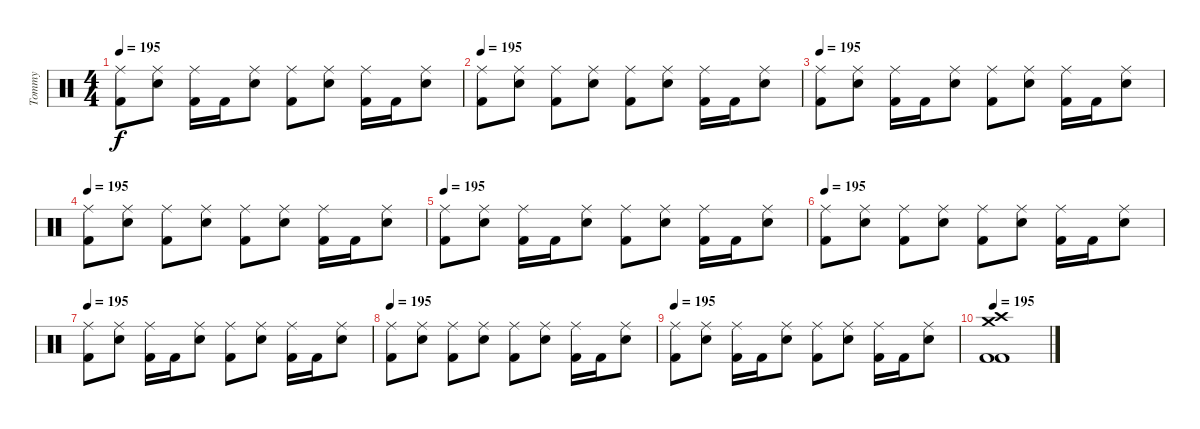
\track ("Tommy" "Tommy") {instrument percussion}
\staff {score}
\articulation defaults
\ts (4 4)
\tempo 195
\clef neutral
\ks c
("Kick (hit) 2" "Ride (middle)").8{dy f} ("Snare (hit) 2" "Ride (middle)").8 ("Kick (hit) 2" "Ride (middle)").16 "Kick (hit) 2".16 ("Snare (hit) 2" "Ride (middle)").8 ("Kick (hit) 2" "Ride (middle)").8 ("Snare (hit) 2" "Ride (middle)").8 ("Kick (hit) 2" "Ride (middle)").16 "Kick (hit) 2".16 ("Snare (hit) 2" "Ride (middle)").8 |
\tempo 195
("Kick (hit) 2" "Ride (middle)").8 ("Snare (hit) 2" "Ride (middle)").8 ("Kick (hit) 2" "Ride (middle)").8 ("Snare (hit) 2" "Ride (middle)").8 ("Kick (hit) 2" "Ride (middle)").8 ("Snare (hit) 2" "Ride (middle)").8 ("Kick (hit) 2" "Ride (middle)").16 "Kick (hit) 2".16 ("Snare (hit) 2" "Ride (middle)").8 |
\tempo 195
("Kick (hit) 2" "Ride (middle)").8 ("Snare (hit) 2" "Ride (middle)").8 ("Kick (hit) 2" "Ride (middle)").16 "Kick (hit) 2".16 ("Snare (hit) 2" "Ride (middle)").8 ("Kick (hit) 2" "Ride (middle)").8 ("Snare (hit) 2" "Ride (middle)").8 ("Kick (hit) 2" "Ride (middle)").16 "Kick (hit) 2".16 ("Snare (hit) 2" "Ride (middle)").8 |
\tempo 195
("Kick (hit) 2" "Ride (middle)").8 ("Snare (hit) 2" "Ride (middle)").8 ("Kick (hit) 2" "Ride (middle)").8 ("Snare (hit) 2" "Ride (middle)").8 ("Kick (hit) 2" "Ride (middle)").8 ("Snare (hit) 2" "Ride (middle)").8 ("Kick (hit) 2" "Ride (middle)").16 "Kick (hit) 2".16 ("Snare (hit) 2" "Ride (middle)").8 |
\tempo 195
("Kick (hit) 2" "Ride (middle)").8 ("Snare (hit) 2" "Ride (middle)").8 ("Kick (hit) 2" "Ride (middle)").16 "Kick (hit) 2".16 ("Snare (hit) 2" "Ride (middle)").8 ("Kick (hit) 2" "Ride (middle)").8 ("Snare (hit) 2" "Ride (middle)").8 ("Kick (hit) 2" "Ride (middle)").16 "Kick (hit) 2".16 ("Snare (hit) 2" "Ride (middle)").8 |
\tempo 195
("Kick (hit) 2" "Ride (middle)").8 ("Snare (hit) 2" "Ride (middle)").8 ("Kick (hit) 2" "Ride (middle)").8 ("Snare (hit) 2" "Ride (middle)").8 ("Kick (hit) 2" "Ride (middle)").8 ("Snare (hit) 2" "Ride (middle)").8 ("Kick (hit) 2" "Ride (middle)").16 "Kick (hit) 2".16 ("Snare (hit) 2" "Ride (middle)").8 |
\tempo 195
("Kick (hit) 2" "Ride (middle)").8 ("Snare (hit) 2" "Ride (middle)").8 ("Kick (hit) 2" "Ride (middle)").16 "Kick (hit) 2".16 ("Snare (hit) 2" "Ride (middle)").8 ("Kick (hit) 2" "Ride (middle)").8 ("Snare (hit) 2" "Ride (middle)").8 ("Kick (hit) 2" "Ride (middle)").16 "Kick (hit) 2".16 ("Snare (hit) 2" "Ride (middle)").8 |
\tempo 195
("Kick (hit) 2" "Ride (middle)").8 ("Snare (hit) 2" "Ride (middle)").8 ("Kick (hit) 2" "Ride (middle)").8 ("Snare (hit) 2" "Ride (middle)").8 ("Kick (hit) 2" "Ride (middle)").8 ("Snare (hit) 2" "Ride (middle)").8 ("Kick (hit) 2" "Ride (middle)").16 "Kick (hit) 2".16 ("Snare (hit) 2" "Ride (middle)").8 |
\tempo 195
("Kick (hit) 2" "Ride (middle)").8 ("Snare (hit) 2" "Ride (middle)").8 ("Kick (hit) 2" "Ride (middle)").16 "Kick (hit) 2".16 ("Snare (hit) 2" "Ride (middle)").8 ("Kick (hit) 2" "Ride (middle)").8 ("Snare (hit) 2" "Ride (middle)").8 ("Kick (hit) 2" "Ride (middle)").16 "Kick (hit) 2".16 ("Snare (hit) 2" "Ride (middle)").8 |
\tempo 195
("Kick (hit) 2" "Kick (hit) 2" "Crash medium (hit)" "Crash high (hit)").1
